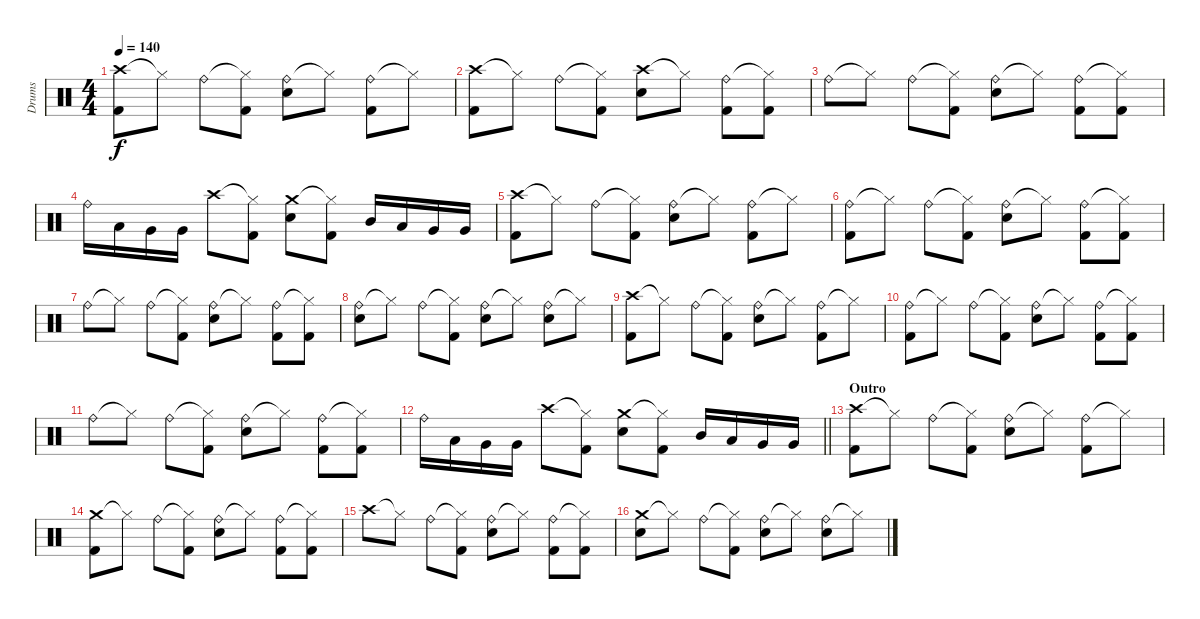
\track ("Drums" "Drums") {instrument percussion}
\staff {score}
\articulation defaults
\ts (4 4)
\tempo 140
\clef neutral
\ks c
("Crash high (hit)" "Kick (hit) 2").8{dy f} "Hi-Hat (closed)"{t}.8 "Ride (bell)".8 ("Hi-Hat (closed)"{t} "Kick (hit) 2").8 ("Ride (bell)" "Snare (hit) 2").8 "Hi-Hat (closed)"{t}.8 ("Ride (bell)" "Kick (hit) 2").8 "Hi-Hat (closed)"{t}.8 |
("Crash high (hit)" "Kick (hit) 2").8 "Hi-Hat (closed)"{t}.8 "Ride (bell)".8 ("Hi-Hat (closed)"{t} "Kick (hit) 2").8 ("Crash high (hit)" "Snare (hit) 2").8 "Hi-Hat (closed)"{t}.8 ("Ride (bell)" "Kick (hit) 2").8 ("Hi-Hat (closed)"{t} "Kick (hit) 2").8 |
"Ride (bell)".8 "Hi-Hat (closed)"{t}.8 "Ride (bell)".8 ("Hi-Hat (closed)"{t} "Kick (hit) 2").8 ("Ride (bell)" "Snare (hit) 2").8 "Hi-Hat (closed)"{t}.8 ("Ride (bell)" "Kick (hit) 2").8 ("Hi-Hat (closed)"{t} "Kick (hit) 2").8 |
"Ride (bell)".16 "Low Tom (hit)".16 "Very Low Tom (hit)".16 "Very Low Tom (hit)".16 "Crash high (hit)".8 ("Hi-Hat (closed)"{t} "Kick (hit) 2").8 ("Crash medium (hit)" "Snare (hit) 2").8 ("Hi-Hat (closed)"{t} "Kick (hit) 2").8 "Mid Tom (hit)".16 "Low Tom (hit)".16 "Very Low Tom (hit)".16 "Very Low Tom (hit)".16 |
("Crash high (hit)" "Kick (hit) 2").8 "Hi-Hat (closed)"{t}.8 "Ride (bell)".8 ("Hi-Hat (closed)"{t} "Kick (hit) 2").8 ("Ride (bell)" "Snare (hit) 2").8 "Hi-Hat (closed)"{t}.8 ("Ride (bell)" "Kick (hit) 2").8 "Hi-Hat (closed)"{t}.8 |
("Ride (bell)" "Kick (hit) 2").8 "Hi-Hat (closed)"{t}.8 "Ride (bell)".8 ("Hi-Hat (closed)"{t} "Kick (hit) 2").8 ("Ride (bell)" "Snare (hit) 2").8 "Hi-Hat (closed)"{t}.8 ("Ride (bell)" "Kick (hit) 2").8 ("Hi-Hat (closed)"{t} "Kick (hit) 2").8 |
"Ride (bell)".8 "Hi-Hat (closed)"{t}.8 "Ride (bell)".8 ("Hi-Hat (closed)"{t} "Kick (hit) 2").8 ("Ride (bell)" "Snare (hit) 2").8 "Hi-Hat (closed)"{t}.8 ("Ride (bell)" "Kick (hit) 2").8 ("Hi-Hat (closed)"{t} "Kick (hit) 2").8 |
("Ride (bell)" "Snare (hit) 2").8 "Hi-Hat (closed)"{t}.8 "Ride (bell)".8 ("Hi-Hat (closed)"{t} "Kick (hit) 2").8 ("Ride (bell)" "Snare (hit) 2").8 "Hi-Hat (closed)"{t}.8 ("Ride (bell)" "Snare (hit) 2").8 "Hi-Hat (closed)"{t}.8 |
("Crash high (hit)" "Kick (hit) 2").8 "Hi-Hat (closed)"{t}.8 "Ride (bell)".8 ("Hi-Hat (closed)"{t} "Kick (hit) 2").8 ("Ride (bell)" "Snare (hit) 2").8 "Hi-Hat (closed)"{t}.8 ("Ride (bell)" "Kick (hit) 2").8 "Hi-Hat (closed)"{t}.8 |
("Ride (bell)" "Kick (hit) 2").8 "Hi-Hat (closed)"{t}.8 "Ride (bell)".8 ("Hi-Hat (closed)"{t} "Kick (hit) 2").8 ("Ride (bell)" "Snare (hit) 2").8 "Hi-Hat (closed)"{t}.8 ("Ride (bell)" "Kick (hit) 2").8 ("Hi-Hat (closed)"{t} "Kick (hit) 2").8 |
"Ride (bell)".8 "Hi-Hat (closed)"{t}.8 "Ride (bell)".8 ("Hi-Hat (closed)"{t} "Kick (hit) 2").8 ("Ride (bell)" "Snare (hit) 2").8 "Hi-Hat (closed)"{t}.8 ("Ride (bell)" "Kick (hit) 2").8 ("Hi-Hat (closed)"{t} "Kick (hit) 2").8 |
\barLineRight lightlight "Ride (bell)".16 "Low Tom (hit)".16 "Very Low Tom (hit)".16 "Very Low Tom (hit)".16 "Crash high (hit)".8
("Hi-Hat (closed)"{t} "Kick (hit) 2").8 ("Crash medium (hit)" "Snare (hit) 2").8 ("Hi-Hat (closed)"{t} "Kick (hit) 2").8 "Mid Tom (hit)".16 "Low Tom (hit)".16 "Very Low Tom (hit)".16 "Very Low Tom (hit)".16 |
\section ("" "Outro")
("Crash high (hit)" "Kick (hit) 2").8 "Hi-Hat (closed)"{t}.8 "Ride (bell)".8 ("Hi-Hat (closed)"{t} "Kick (hit) 2").8 ("Ride (bell)" "Snare (hit) 2").8 "Hi-Hat (closed)"{t}.8 ("Ride (bell)" "Kick (hit) 2").8 "Hi-Hat (closed)"{t}.8 |
("Crash medium (hit)" "Kick (hit) 2").8 "Hi-Hat (closed)"{t}.8 "Ride (bell)".8 ("Hi-Hat (closed)"{t} "Kick (hit) 2").8 ("Ride (bell)" "Snare (hit) 2").8 "Hi-Hat (closed)"{t}.8 ("Ride (bell)" "Kick (hit) 2").8 ("Hi-Hat (closed)"{t} "Kick (hit) 2").8 |
"Crash high (hit)".8 "Hi-Hat (closed)"{t}.8 "Ride (bell)".8 ("Hi-Hat (closed)"{t} "Kick (hit) 2").8 ("Ride (bell)" "Snare (hit) 2").8 "Hi-Hat (closed)"{t}.8 ("Ride (bell)" "Kick (hit) 2").8 ("Hi-Hat (closed)"{t} "Kick (hit) 2").8 |
("Crash medium (hit)" "Snare (hit) 2").8 "Hi-Hat (closed)"{t}.8 "Ride (bell)".8 ("Hi-Hat (closed)"{t} "Kick (hit) 2").8 ("Ride (bell)" "Snare (hit) 2").8 "Hi-Hat (closed)"{t}.8 ("Ride (bell)" "Snare (hit) 2").8 "Hi-Hat (closed)"{t}.8
